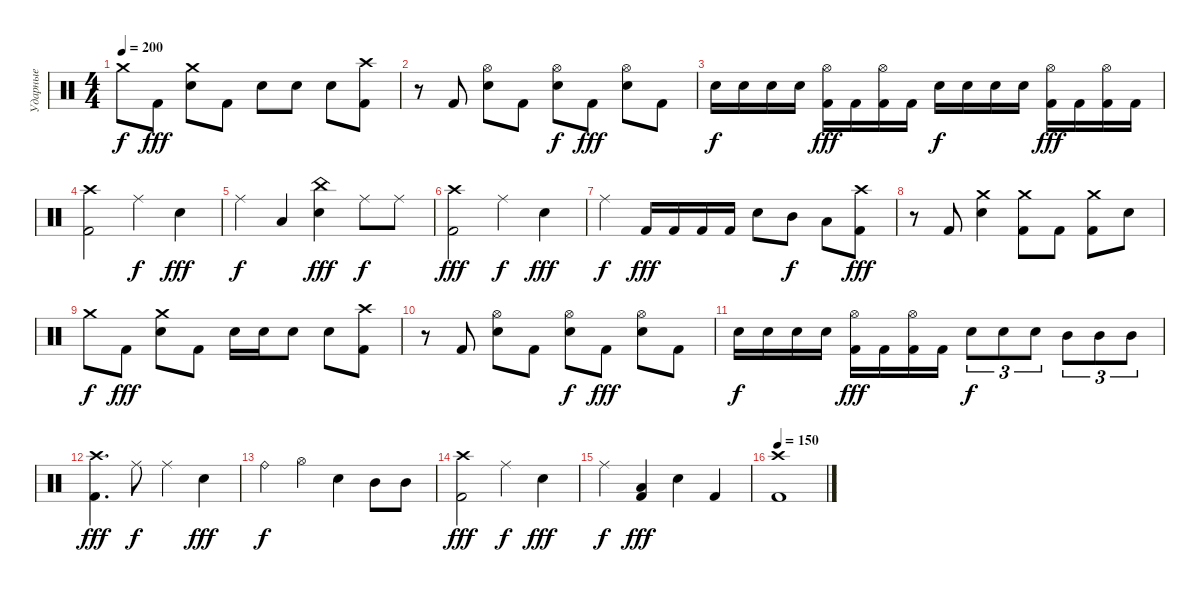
\track ("Ударные" "Ударные") {instrument percussion}
\staff {score}
\articulation defaults
\ts (4 4)
\tempo 200
\clef neutral
\ks c "Crash medium (hit)".8{dy f} "Kick (hit) 2".8{dy fff}
("Crash medium (hit)" "Electric Snare (hit)").8 "Kick (hit) 2".8 "Electric Snare (hit)".8 "Electric Snare (hit)".8 "Electric Snare (hit)".8 ("Crash high (hit)" "Kick (hit) 2").8 |
r.8 "Kick (hit) 2".8 ("Hi-Hat (open)" "Electric Snare (hit)").8 "Kick (hit) 2".8 ("Hi-Hat (open)" "Electric Snare (hit)").8{dy f} "Kick (hit) 2".8{dy fff} ("Hi-Hat (open)" "Electric Snare (hit)").8 "Kick (hit) 2".8 |
"Electric Snare (hit)".16{dy f} "Electric Snare (hit)".16 "Electric Snare (hit)".16 "Electric Snare (hit)".16 ("Hi-Hat (open)" "Kick (hit) 2").16{dy fff} "Kick (hit) 2".16 ("Hi-Hat (open)" "Kick (hit) 2").16 "Kick (hit) 2".16 "Electric Snare (hit)".16{dy f} "Electric Snare (hit)".16 "Electric Snare (hit)".16 "Electric Snare (hit)".16 ("Hi-Hat (open)" "Kick (hit) 2").16{dy fff} "Kick (hit) 2".16 ("Hi-Hat (open)" "Kick (hit) 2").16 "Kick (hit) 2".16 |
("Crash high (hit)" "Kick (hit) 2").2 "Ride (middle)".4{dy f} "Electric Snare (hit)".4{dy fff} |
"Ride (middle)".4{dy f} "Low Floor Tom (hit)".4 ("China (hit)" "Electric Snare (hit)").4{dy fff} "Ride (middle)".8{dy f} "Ride (middle)".8 |
("Crash high (hit)" "Kick (hit) 2").2{dy fff} "Ride (middle)".4{dy f} "Electric Snare (hit)".4{dy fff} |
"Ride (middle)".4{dy f} "Kick (hit) 2".16{dy fff} "Kick (hit) 2".16 "Kick (hit) 2".16 "Kick (hit) 2".16 "Electric Snare (hit)".8 "Mid Tom (hit)".8{dy f} "Low Floor Tom (hit)".8 ("Crash high (hit)" "Kick (hit) 2").8{dy fff} |
r.8 "Kick (hit) 2".8 ("Crash medium (hit)" "Electric Snare (hit)").4 ("Crash medium (hit)" "Kick (hit) 2").8 "Kick (hit) 2".8 ("Crash medium (hit)" "Kick (hit) 2").8 "Electric Snare (hit)".8 |
"Crash medium (hit)".8{dy f} "Kick (hit) 2".8{dy fff} ("Crash medium (hit)" "Electric Snare (hit)").8 "Kick (hit) 2".8 "Electric Snare (hit)".16 "Electric Snare (hit)".16 "Electric Snare (hit)".8 "Electric Snare (hit)".8 ("Crash high (hit)" "Kick (hit) 2").8 |
r.8 "Kick (hit) 2".8 ("Hi-Hat (open)" "Electric Snare (hit)").8 "Kick (hit) 2".8 ("Hi-Hat (open)" "Electric Snare (hit)").8{dy f} "Kick (hit) 2".8{dy fff} ("Hi-Hat (open)" "Electric Snare (hit)").8 "Kick (hit) 2".8 |
"Electric Snare (hit)".16{dy f} "Electric Snare (hit)".16 "Electric Snare (hit)".16 "Electric Snare (hit)".16 ("Hi-Hat (open)" "Kick (hit) 2").16{dy fff} "Kick (hit) 2".16 ("Hi-Hat (open)" "Kick (hit) 2").16 "Kick (hit) 2".16 "Electric Snare (hit)".8{tu (3 2) dy f} "Electric Snare (hit)".8{tu (3 2)} "Electric Snare (hit)".8{tu (3 2)} "Mid Tom (hit)".8{tu (3 2)} "Mid Tom (hit)".8{tu (3 2)} "Mid Tom (hit)".8{tu (3 2)} |
("Crash high (hit)" "Kick (hit) 2").4{d dy fff} "Ride (middle)".8{dy f} "Ride (middle)".4 "Electric Snare (hit)".4{dy fff} |
"Ride (bell)".4{dy f} "Hi-Hat (open)".4 "Electric Snare (hit)".4 "Mid Tom (hit)".8 "Mid Tom (hit)".8 |
("Crash high (hit)" "Kick (hit) 2").2{dy fff} "Ride (middle)".4{dy f} "Electric Snare (hit)".4{dy fff} |
"Ride (middle)".4{dy f} ("Low Floor Tom (hit)" "Kick (hit) 2").4{dy fff} "Electric Snare (hit)".4 "Kick (hit) 2".4 |
\tempo 150
("Crash high (hit)" "Kick (hit) 2").1
